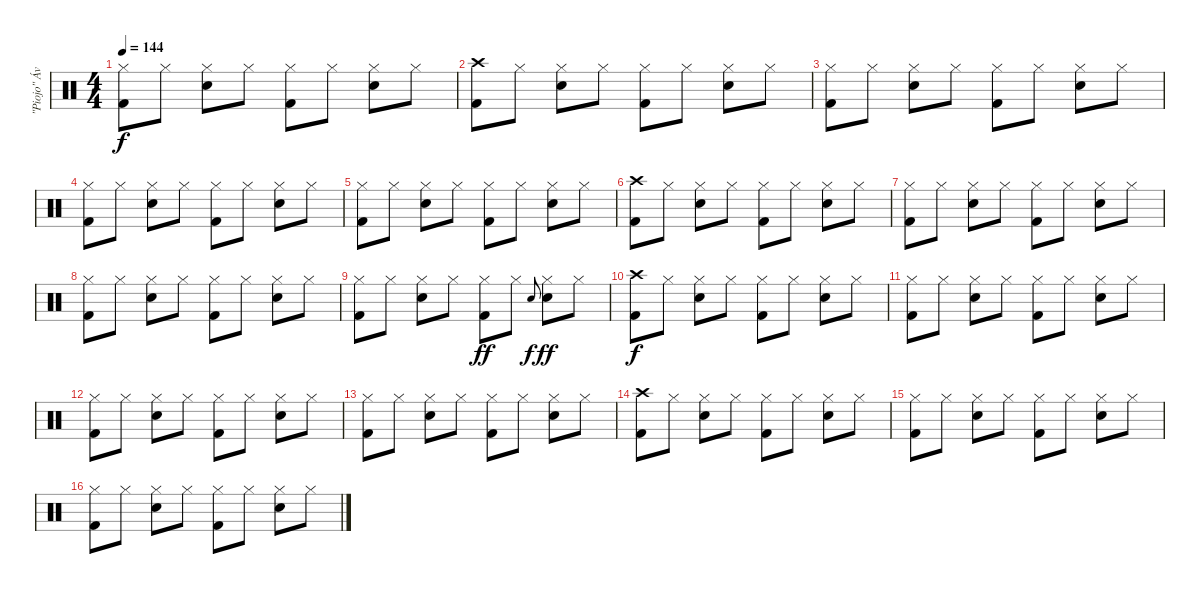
\track ("\"Piojo\" Ávalos" "\"Piojo\" Áv") {instrument percussion}
\staff {score}
\articulation defaults
\ts (4 4)
\tempo 144
\clef neutral
\ks c
("Hi-Hat (closed)" "Kick (hit) 2").8{dy f} "Hi-Hat (closed)".8 ("Hi-Hat (closed)" "Electric Snare (hit)").8 "Hi-Hat (closed)".8 ("Hi-Hat (closed)" "Kick (hit) 2").8 "Hi-Hat (closed)".8 ("Hi-Hat (closed)" "Electric Snare (hit)").8 "Hi-Hat (closed)".8 |
("Crash high (hit)" "Kick (hit) 2").8 "Hi-Hat (closed)".8 ("Hi-Hat (closed)" "Electric Snare (hit)").8 "Hi-Hat (closed)".8 ("Hi-Hat (closed)" "Kick (hit) 2").8 "Hi-Hat (closed)".8 ("Hi-Hat (closed)" "Electric Snare (hit)").8 "Hi-Hat (closed)".8 |
("Hi-Hat (closed)" "Kick (hit) 2").8 "Hi-Hat (closed)".8 ("Hi-Hat (closed)" "Electric Snare (hit)").8 "Hi-Hat (closed)".8 ("Hi-Hat (closed)" "Kick (hit) 2").8 "Hi-Hat (closed)".8 ("Hi-Hat (closed)" "Electric Snare (hit)").8 "Hi-Hat (closed)".8 |
("Hi-Hat (closed)" "Kick (hit) 2").8 "Hi-Hat (closed)".8 ("Hi-Hat (closed)" "Electric Snare (hit)").8 "Hi-Hat (closed)".8 ("Hi-Hat (closed)" "Kick (hit) 2").8 "Hi-Hat (closed)".8 ("Hi-Hat (closed)" "Electric Snare (hit)").8 "Hi-Hat (closed)".8 |
("Hi-Hat (closed)" "Kick (hit) 2").8 "Hi-Hat (closed)".8 ("Hi-Hat (closed)" "Electric Snare (hit)").8 "Hi-Hat (closed)".8 ("Hi-Hat (closed)" "Kick (hit) 2").8 "Hi-Hat (closed)".8 ("Hi-Hat (closed)" "Electric Snare (hit)").8 "Hi-Hat (closed)".8 |
("Crash high (hit)" "Kick (hit) 2").8 "Hi-Hat (closed)".8 ("Hi-Hat (closed)" "Electric Snare (hit)").8 "Hi-Hat (closed)".8 ("Hi-Hat (closed)" "Kick (hit) 2").8 "Hi-Hat (closed)".8 ("Hi-Hat (closed)" "Electric Snare (hit)").8 "Hi-Hat (closed)".8 |
("Hi-Hat (closed)" "Kick (hit) 2").8 "Hi-Hat (closed)".8 ("Hi-Hat (closed)" "Electric Snare (hit)").8 "Hi-Hat (closed)".8 ("Hi-Hat (closed)" "Kick (hit) 2").8 "Hi-Hat (closed)".8 ("Hi-Hat (closed)" "Electric Snare (hit)").8 "Hi-Hat (closed)".8 |
("Hi-Hat (closed)" "Kick (hit) 2").8 "Hi-Hat (closed)".8 ("Hi-Hat (closed)" "Electric Snare (hit)").8 "Hi-Hat (closed)".8 ("Hi-Hat (closed)" "Kick (hit) 2").8 "Hi-Hat (closed)".8 ("Hi-Hat (closed)" "Electric Snare (hit)").8 "Hi-Hat (closed)".8 |
("Hi-Hat (closed)" "Kick (hit) 2").8 "Hi-Hat (closed)".8 ("Hi-Hat (closed)" "Electric Snare (hit)").8 "Hi-Hat (closed)".8 ("Hi-Hat (closed)" "Kick (hit) 2").8{dy ff} "Hi-Hat (closed)".8 "Electric Snare (hit)".8{gr onbeat dy f} ("Hi-Hat (closed)" "Electric Snare (hit)").8{dy ff} "Hi-Hat (closed)".8 |
("Crash high (hit)" "Kick (hit) 2").8{dy f} "Hi-Hat (closed)".8 ("Hi-Hat (closed)" "Electric Snare (hit)").8 "Hi-Hat (closed)".8 ("Hi-Hat (closed)" "Kick (hit) 2").8 "Hi-Hat (closed)".8 ("Hi-Hat (closed)" "Electric Snare (hit)").8 "Hi-Hat (closed)".8 |
("Hi-Hat (closed)" "Kick (hit) 2").8 "Hi-Hat (closed)".8 ("Hi-Hat (closed)" "Electric Snare (hit)").8 "Hi-Hat (closed)".8 ("Hi-Hat (closed)" "Kick (hit) 2").8 "Hi-Hat (closed)".8 ("Hi-Hat (closed)" "Electric Snare (hit)").8 "Hi-Hat (closed)".8 |
("Hi-Hat (closed)" "Kick (hit) 2").8 "Hi-Hat (closed)".8 ("Hi-Hat (closed)" "Electric Snare (hit)").8 "Hi-Hat (closed)".8 ("Hi-Hat (closed)" "Kick (hit) 2").8 "Hi-Hat (closed)".8 ("Hi-Hat (closed)" "Electric Snare (hit)").8 "Hi-Hat (closed)".8 |
("Hi-Hat (closed)" "Kick (hit) 2").8 "Hi-Hat (closed)".8 ("Hi-Hat (closed)" "Electric Snare (hit)").8 "Hi-Hat (closed)".8 ("Hi-Hat (closed)" "Kick (hit) 2").8 "Hi-Hat (closed)".8 ("Hi-Hat (closed)" "Electric Snare (hit)").8 "Hi-Hat (closed)".8 |
("Crash high (hit)" "Kick (hit) 2").8 "Hi-Hat (closed)".8 ("Hi-Hat (closed)" "Electric Snare (hit)").8 "Hi-Hat (closed)".8 ("Hi-Hat (closed)" "Kick (hit) 2").8 "Hi-Hat (closed)".8 ("Hi-Hat (closed)" "Electric Snare (hit)").8 "Hi-Hat (closed)".8 |
("Hi-Hat (closed)" "Kick (hit) 2").8 "Hi-Hat (closed)".8 ("Hi-Hat (closed)" "Electric Snare (hit)").8 "Hi-Hat (closed)".8 ("Hi-Hat (closed)" "Kick (hit) 2").8 "Hi-Hat (closed)".8 ("Hi-Hat (closed)" "Electric Snare (hit)").8 "Hi-Hat (closed)".8 |
("Hi-Hat (closed)" "Kick (hit) 2").8 "Hi-Hat (closed)".8 ("Hi-Hat (closed)" "Electric Snare (hit)").8 "Hi-Hat (closed)".8 ("Hi-Hat (closed)" "Kick (hit) 2").8 "Hi-Hat (closed)".8 ("Hi-Hat (closed)" "Electric Snare (hit)").8 "Hi-Hat (closed)".8
